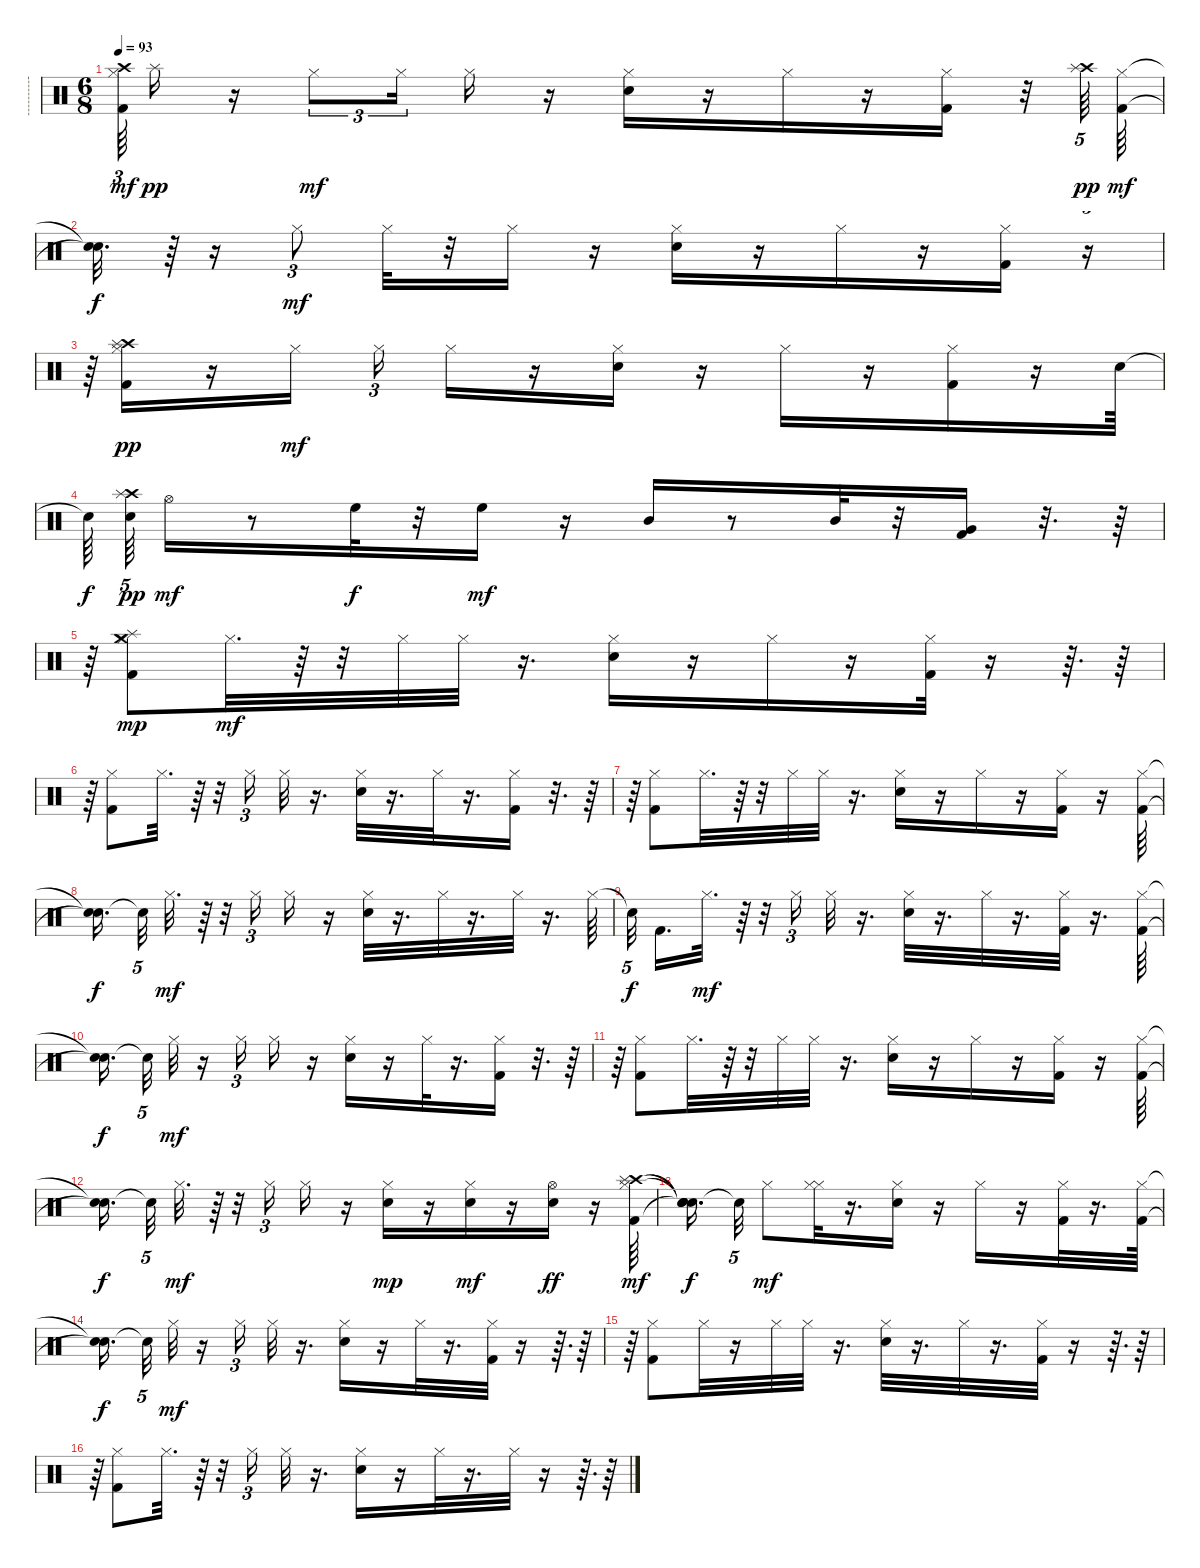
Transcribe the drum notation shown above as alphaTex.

\track ("-----------------------------------" "----------") {instrument percussion}
\staff {score}
\articulation defaults
\ts (6 8)
\tempo 93
\clef neutral
\ks c
("Hi-Hat (closed)" "Kick (hit) 2" "Crash high (hit)").64{tu (3 2) dy mf} "Splash (hit)".16{dy pp} r.16 "Hi-Hat (closed)".8{tu (3 2) dy mf} "Hi-Hat (closed)".16{tu (3 2)} "Hi-Hat (closed)".16 r.16 ("Hi-Hat (closed)" "Snare (hit) 2").16 r.16 "Hi-Hat (closed)".16 r.16 ("Hi-Hat (closed)" "Kick (hit) 2").16 r.32 ("Crash high (hit)" "Splash (hit)").64{tu (5 4) dy pp} ("Hi-Hat (closed)" "Kick (hit) 2").64{dy mf} |
("Snare (hit)"{t} "Snare (hit)"{t}).32{d dy f} r.64 r.16 "Hi-Hat (closed)".8{tu (3 2) dy mf} "Hi-Hat (closed)".32 r.32 "Hi-Hat (closed)".16 r.16 ("Hi-Hat (closed)" "Snare (hit) 2").16 r.16 "Hi-Hat (closed)".16 r.16 ("Hi-Hat (closed)" "Kick (hit) 2").16 r.16{tu (5 4)} |
r.64{tu (5 4)} ("Hi-Hat (closed)" "Kick (hit) 2" "Crash high (hit)" "Splash (hit)").16{dy pp} r.16 "Hi-Hat (closed)".16{dy mf beam splitsecondary} "Hi-Hat (closed)".16{tu (3 2)} "Hi-Hat (closed)".16 r.16 ("Hi-Hat (closed)" "Snare (hit) 2").16 r.16 "Hi-Hat (closed)".16 r.16 ("Hi-Hat (closed)" "Kick (hit) 2").16 r.16 "Snare (hit) 2".64 |
"Snare (hit)"{t}.64{dy f beam splitsecondary} ("Crash high (hit)" "Splash (hit)" "Electric Snare (hit)").64{tu (5 4) dy pp} "Hi-Hat (open)".16{dy mf} r.8 "High Floor Tom (hit)".32{dy f} r.32 "High Floor Tom (hit)".16{dy mf} r.16 "Mid Tom (hit)".16 r.8 "Mid Tom (hit)".32 r.32 ("Kick (hit) 2" "Very Low Tom (hit)").16 r.32{d} r.64 |
r.64 ("Hi-Hat (closed)" "Splash (hit)" "Crash medium (hit)" "Kick (hit) 2").8{dy mp} "Hi-Hat (closed)".32{d dy mf} r.64 r.32 "Hi-Hat (closed)".32 "Hi-Hat (closed)".32 r.16{d} ("Hi-Hat (closed)" "Snare (hit) 2").16 r.16 "Hi-Hat (closed)".16 r.16 ("Hi-Hat (closed)" "Kick (hit) 2").32 r.16 r.64{d} r.64 |
r.64 ("Hi-Hat (closed)" "Kick (hit) 2").8 "Hi-Hat (closed)".32{d} r.64 r.32 "Hi-Hat (closed)".16{tu (3 2)} "Hi-Hat (closed)".32 r.16{d} ("Hi-Hat (closed)" "Snare (hit) 2").32 r.16{d} "Hi-Hat (closed)".32 r.16{d} ("Hi-Hat (closed)" "Kick (hit) 2").16 r.32{d} r.64 |
r.64 ("Hi-Hat (closed)" "Kick (hit) 2").8 "Hi-Hat (closed)".32{d} r.64 r.32 "Hi-Hat (closed)".32 "Hi-Hat (closed)".32 r.16{d} ("Hi-Hat (closed)" "Snare (hit) 2").16 r.16 "Hi-Hat (closed)".16 r.16 ("Hi-Hat (closed)" "Kick (hit) 2").16 r.16 ("Hi-Hat (closed)" "Kick (hit) 2").64 |
("Snare (hit)"{t} "Snare (hit)"{t}).16{d dy f beam splitsecondary} "Snare (hit)"{t}.32{tu (5 4)} "Hi-Hat (closed)".32{d dy mf} r.64 r.32 "Hi-Hat (closed)".16{tu (3 2)} "Hi-Hat (closed)".16 r.16 ("Hi-Hat (closed)" "Snare (hit) 2").32 r.16{d} "Hi-Hat (closed)".32 r.16{d} "Hi-Hat (closed)".32 r.16{d} "Hi-Hat (closed)".64 |
"Snare (hit)"{t}.32{tu (5 4) dy f beam splitsecondary} "Kick (hit) 2".16{d} "Hi-Hat (closed)".32{d dy mf} r.64 r.32 "Hi-Hat (closed)".16{tu (3 2)} "Hi-Hat (closed)".32 r.16{d} ("Hi-Hat (closed)" "Snare (hit) 2").32 r.16{d} "Hi-Hat (closed)".32 r.16{d} ("Hi-Hat (closed)" "Kick (hit) 2").32 r.16{d} ("Hi-Hat (closed)" "Kick (hit) 2").64 |
("Snare (hit)"{t} "Snare (hit)"{t}).16{d dy f beam splitsecondary} "Snare (hit)"{t}.32{tu (5 4)} "Hi-Hat (closed)".32{dy mf} r.16 "Hi-Hat (closed)".16{tu (3 2)} "Hi-Hat (closed)".16 r.16 ("Hi-Hat (closed)" "Snare (hit) 2").16 r.16 "Hi-Hat (closed)".32 r.16{d} ("Hi-Hat (closed)" "Kick (hit) 2").16 r.32{d} r.64 |
r.64 ("Hi-Hat (closed)" "Kick (hit) 2").8 "Hi-Hat (closed)".32{d} r.64 r.32 "Hi-Hat (closed)".32 "Hi-Hat (closed)".32 r.16{d} ("Hi-Hat (closed)" "Snare (hit) 2").16 r.16 "Hi-Hat (closed)".16 r.16 ("Hi-Hat (closed)" "Kick (hit) 2").16 r.16 ("Hi-Hat (closed)" "Kick (hit) 2").64 |
("Snare (hit)"{t} "Snare (hit)"{t}).16{d dy f beam splitsecondary} "Snare (hit)"{t}.32{tu (5 4)} "Hi-Hat (closed)".32{d dy mf} r.64 r.32 "Hi-Hat (closed)".16{tu (3 2)} "Hi-Hat (closed)".16 r.16 ("Hi-Hat (closed)" "Snare (hit) 2").16{dy mp} r.16 ("Hi-Hat (closed)" "Snare (hit) 2").16{dy mf} r.16 ("Hi-Hat (open)" "Snare (hit) 2").16{dy ff} r.16 ("Hi-Hat (closed)" "Crash high (hit)" "Splash (hit)" "Kick (hit) 2").64{dy mf} |
("Snare (hit)"{t} "Snare (hit)"{t} "Snare (hit)"{t} "Snare (hit)"{t}).16{d dy f beam splitsecondary} "Snare (hit)"{t}.32{tu (5 4)} "Hi-Hat (closed)".8{dy mf} ("Hi-Hat (closed)" "Hi-Hat (closed)").32 r.16{d} ("Hi-Hat (closed)" "Snare (hit) 2").16 r.16 "Hi-Hat (closed)".16 r.16 ("Hi-Hat (closed)" "Kick (hit) 2").32 r.16{d} ("Hi-Hat (closed)" "Kick (hit) 2").64 |
("Snare (hit)"{t} "Snare (hit)"{t}).16{d dy f beam splitsecondary} "Snare (hit)"{t}.32{tu (5 4)} "Hi-Hat (closed)".32{dy mf} r.16 "Hi-Hat (closed)".16{tu (3 2)} "Hi-Hat (closed)".32 r.16{d} ("Hi-Hat (closed)" "Snare (hit) 2").16 r.16 "Hi-Hat (closed)".32 r.16{d} ("Hi-Hat (closed)" "Kick (hit) 2").32 r.16 r.64{d} r.64 |
r.64 ("Hi-Hat (closed)" "Kick (hit) 2").8 "Hi-Hat (closed)".32 r.16 "Hi-Hat (closed)".32 "Hi-Hat (closed)".32 r.16{d} ("Hi-Hat (closed)" "Snare (hit) 2").32 r.16{d} "Hi-Hat (closed)".32 r.16{d} ("Hi-Hat (closed)" "Kick (hit) 2").32 r.16 r.64{d} r.64 |
r.64 ("Hi-Hat (closed)" "Kick (hit) 2").8 "Hi-Hat (closed)".32{d} r.64 r.32 "Hi-Hat (closed)".16{tu (3 2)} "Hi-Hat (closed)".32 r.16{d} ("Hi-Hat (closed)" "Snare (hit) 2").16 r.16 "Hi-Hat (closed)".32 r.16{d} "Hi-Hat (closed)".32 r.16 r.64{d} r.64
